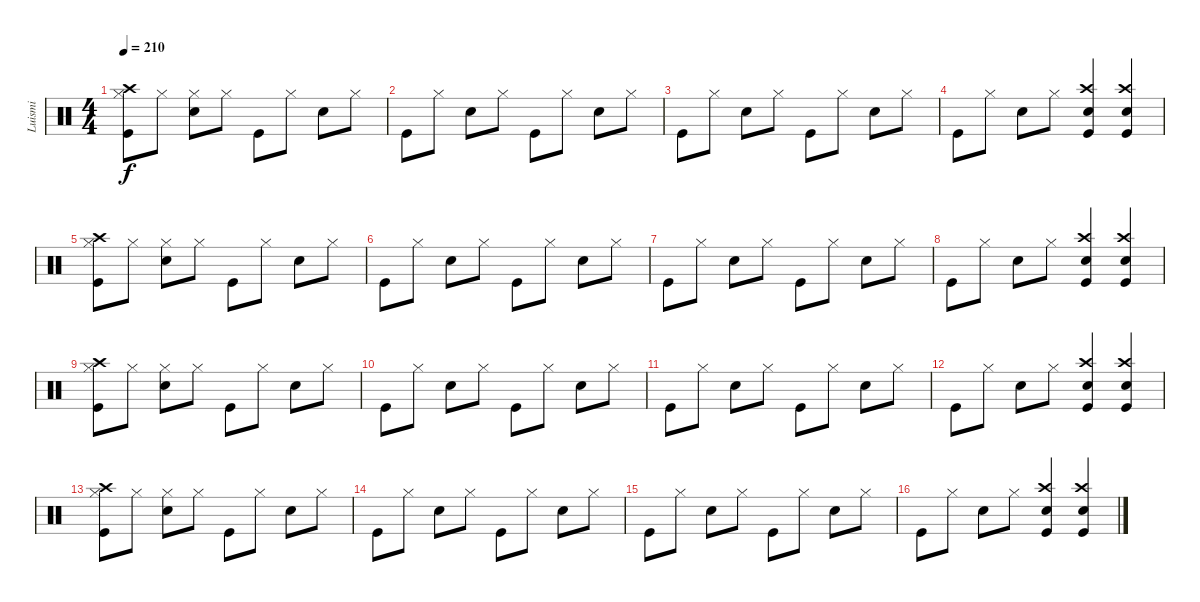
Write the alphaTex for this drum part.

\track ("Luismi" "Luismi") {instrument percussion}
\staff {score}
\articulation defaults
\ts (4 4)
\tempo 210
\clef neutral
\ks c
("Kick (hit)" "Crash high (hit)" "Hi-Hat (closed)").8{dy f} "Hi-Hat (closed)".8 ("Snare (hit) 2" "Hi-Hat (closed)").8 "Hi-Hat (closed)".8 "Kick (hit)".8 "Hi-Hat (closed)".8 "Snare (hit) 2".8 "Hi-Hat (closed)".8 |
"Kick (hit)".8 "Hi-Hat (closed)".8 "Snare (hit) 2".8 "Hi-Hat (closed)".8 "Kick (hit)".8 "Hi-Hat (closed)".8 "Snare (hit) 2".8 "Hi-Hat (closed)".8 |
"Kick (hit)".8 "Hi-Hat (closed)".8 "Snare (hit) 2".8 "Hi-Hat (closed)".8 "Kick (hit)".8 "Hi-Hat (closed)".8 "Snare (hit) 2".8 "Hi-Hat (closed)".8 |
"Kick (hit)".8 "Hi-Hat (closed)".8 "Snare (hit) 2".8 "Hi-Hat (closed)".8 ("Snare (hit) 2" "Kick (hit)" "Crash high (hit)").4 ("Snare (hit) 2" "Kick (hit)" "Crash high (hit)").4 |
("Kick (hit)" "Crash high (hit)" "Hi-Hat (closed)").8 "Hi-Hat (closed)".8 ("Snare (hit) 2" "Hi-Hat (closed)").8 "Hi-Hat (closed)".8 "Kick (hit)".8 "Hi-Hat (closed)".8 "Snare (hit) 2".8 "Hi-Hat (closed)".8 |
"Kick (hit)".8 "Hi-Hat (closed)".8 "Snare (hit) 2".8 "Hi-Hat (closed)".8 "Kick (hit)".8 "Hi-Hat (closed)".8 "Snare (hit) 2".8 "Hi-Hat (closed)".8 |
"Kick (hit)".8 "Hi-Hat (closed)".8 "Snare (hit) 2".8 "Hi-Hat (closed)".8 "Kick (hit)".8 "Hi-Hat (closed)".8 "Snare (hit) 2".8 "Hi-Hat (closed)".8 |
"Kick (hit)".8 "Hi-Hat (closed)".8 "Snare (hit) 2".8 "Hi-Hat (closed)".8 ("Snare (hit) 2" "Kick (hit)" "Crash high (hit)").4 ("Snare (hit) 2" "Kick (hit)" "Crash high (hit)").4 |
("Kick (hit)" "Crash high (hit)" "Hi-Hat (closed)").8 "Hi-Hat (closed)".8 ("Snare (hit) 2" "Hi-Hat (closed)").8 "Hi-Hat (closed)".8 "Kick (hit)".8 "Hi-Hat (closed)".8 "Snare (hit) 2".8 "Hi-Hat (closed)".8 |
"Kick (hit)".8 "Hi-Hat (closed)".8 "Snare (hit) 2".8 "Hi-Hat (closed)".8 "Kick (hit)".8 "Hi-Hat (closed)".8 "Snare (hit) 2".8 "Hi-Hat (closed)".8 |
"Kick (hit)".8 "Hi-Hat (closed)".8 "Snare (hit) 2".8 "Hi-Hat (closed)".8 "Kick (hit)".8 "Hi-Hat (closed)".8 "Snare (hit) 2".8 "Hi-Hat (closed)".8 |
"Kick (hit)".8 "Hi-Hat (closed)".8 "Snare (hit) 2".8 "Hi-Hat (closed)".8 ("Snare (hit) 2" "Kick (hit)" "Crash high (hit)").4 ("Snare (hit) 2" "Kick (hit)" "Crash high (hit)").4 |
("Kick (hit)" "Crash high (hit)" "Hi-Hat (closed)").8 "Hi-Hat (closed)".8 ("Snare (hit) 2" "Hi-Hat (closed)").8 "Hi-Hat (closed)".8 "Kick (hit)".8 "Hi-Hat (closed)".8 "Snare (hit) 2".8 "Hi-Hat (closed)".8 |
"Kick (hit)".8 "Hi-Hat (closed)".8 "Snare (hit) 2".8 "Hi-Hat (closed)".8 "Kick (hit)".8 "Hi-Hat (closed)".8 "Snare (hit) 2".8 "Hi-Hat (closed)".8 |
"Kick (hit)".8 "Hi-Hat (closed)".8 "Snare (hit) 2".8 "Hi-Hat (closed)".8 "Kick (hit)".8 "Hi-Hat (closed)".8 "Snare (hit) 2".8 "Hi-Hat (closed)".8 |
"Kick (hit)".8 "Hi-Hat (closed)".8 "Snare (hit) 2".8 "Hi-Hat (closed)".8 ("Snare (hit) 2" "Kick (hit)" "Crash high (hit)").4 ("Snare (hit) 2" "Kick (hit)" "Crash high (hit)").4
